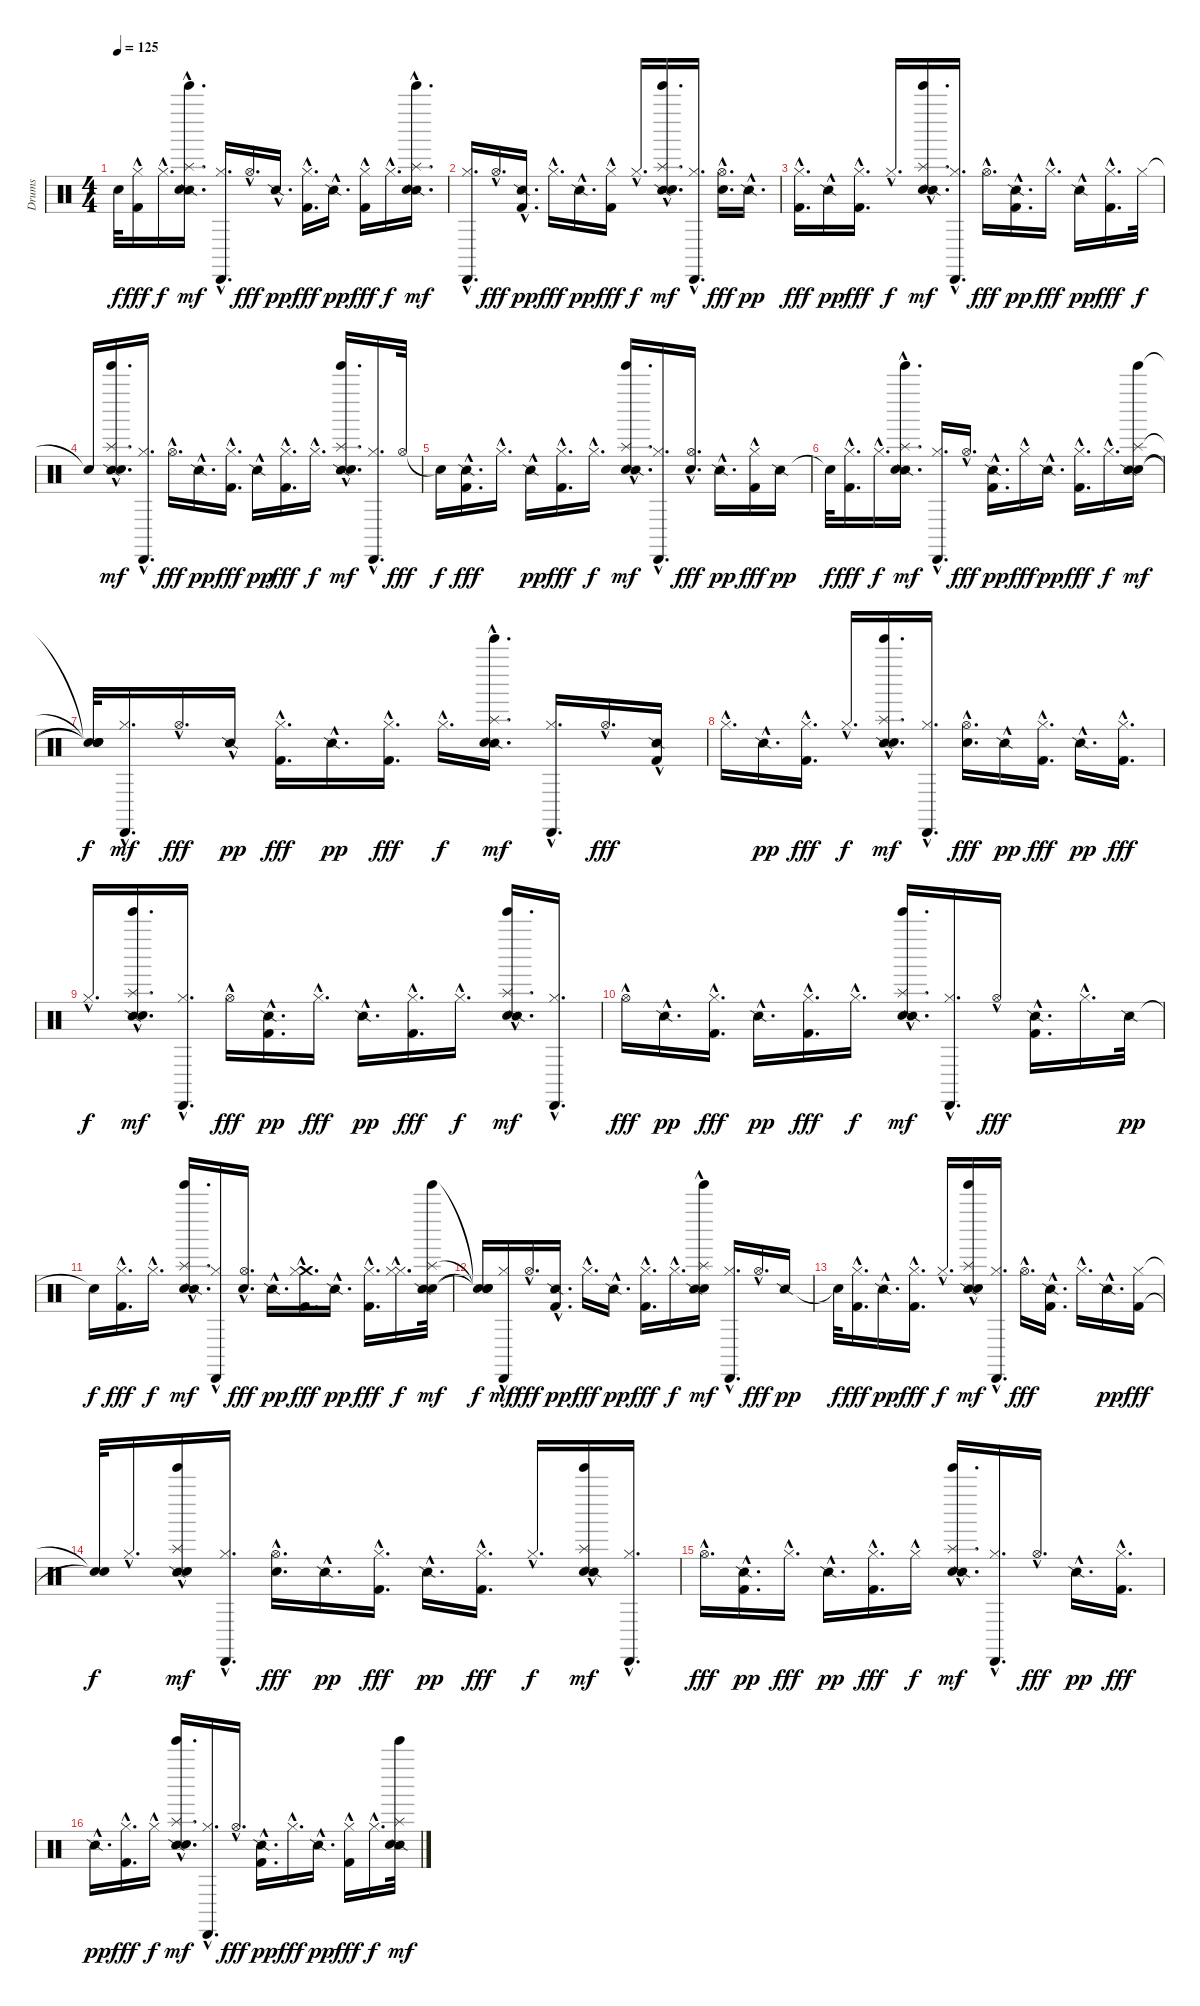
\track ("Drums" "Drums") {instrument percussion}
\staff {score}
\articulation defaults
\ts (4 4)
\tempo 125
\clef neutral
\ks c "Snare (hit)"{t}.32{dy f}
("Hi-Hat (closed)"{hac} "Kick (hit) 2"{hac}).16{dy fff} "Hi-Hat (closed)"{hac}.16{d dy f} ("Snare (side stick) 2"{hac} "Hand Clap (hit)"{hac} "Tinkle Bell (hit)"{hac} "Splash (hit)"{hac}).16{d dy mf} ("Hi-Hat (closed)"{hac} "Cabasa (hit)"{hac}).16{d} "Hi-Hat (open)"{hac}.16{d dy fff} "Snare (side stick) 2"{hac}.16{d dy pp} ("Kick (hit) 2"{hac} "Hi-Hat (closed)"{hac}).16{d dy fff} "Snare (side stick) 2"{hac}.16{d dy pp} ("Hi-Hat (closed)"{hac} "Kick (hit) 2"{hac}).16{dy fff} "Hi-Hat (closed)"{hac}.16{d dy f} ("Snare (side stick) 2"{hac} "Hand Clap (hit)"{hac} "Tinkle Bell (hit)"{hac} "Splash (hit)"{hac}).16{d dy mf} |
("Hi-Hat (closed)"{hac} "Cabasa (hit)"{hac}).16{d} "Hi-Hat (open)"{hac}.16{d dy fff} ("Kick (hit) 2"{hac} "Snare (side stick) 2"{hac}).16{d dy pp} "Hi-Hat (closed)"{hac}.16{d dy fff} "Snare (side stick) 2"{hac}.16{d dy pp} ("Kick (hit) 2"{hac} "Hi-Hat (closed)"{hac}).16{dy fff} "Hi-Hat (closed)"{hac}.16{d dy f} ("Snare (side stick) 2"{hac} "Hand Clap (hit)"{hac} "Tinkle Bell (hit)"{hac} "Splash (hit)"{hac}).16{d dy mf} ("Hi-Hat (closed)"{hac} "Cabasa (hit)"{hac}).16{d} ("Hand Clap (hit)"{hac} "Hi-Hat (open)"{hac}).16{d dy fff} "Snare (side stick) 2"{hac}.16{d dy pp} |
("Hi-Hat (closed)"{hac} "Kick (hit) 2"{hac}).16{d dy fff} "Snare (side stick) 2"{hac}.16{dy pp} ("Kick (hit) 2"{hac} "Hi-Hat (closed)"{hac}).16{d dy fff} "Hi-Hat (closed)"{hac}.16{d dy f} ("Hand Clap (hit)"{hac} "Snare (side stick) 2"{hac} "Tinkle Bell (hit)"{hac} "Splash (hit)"{hac}).16{d dy mf} ("Cabasa (hit)"{hac} "Hi-Hat (closed)"{hac}).16{d} "Hi-Hat (open)"{hac}.16{d dy fff} ("Kick (hit) 2"{hac} "Snare (side stick) 2"{hac}).16{d dy pp} "Hi-Hat (closed)"{hac}.16{d dy fff} "Snare (side stick) 2"{hac}.16{dy pp} ("Kick (hit) 2"{hac} "Hi-Hat (closed)"{hac}).16{d dy fff} "Hi-Hat (closed)".32{dy f} |
"Snare (hit)"{t}.16 ("Snare (side stick) 2"{hac} "Hand Clap (hit)"{hac} "Tinkle Bell (hit)"{hac} "Splash (hit)"{hac}).16{d dy mf} ("Cabasa (hit)"{hac} "Hi-Hat (closed)"{hac}).16{d} "Hi-Hat (open)"{hac}.16{d dy fff} "Snare (side stick) 2"{hac}.16{d dy pp} ("Kick (hit) 2"{hac} "Hi-Hat (closed)"{hac}).16{d dy fff} "Snare (side stick) 2"{hac}.16{dy pp} ("Hi-Hat (closed)"{hac} "Kick (hit) 2"{hac}).16{d dy fff} "Hi-Hat (closed)"{hac}.16{d dy f} ("Snare (side stick) 2"{hac} "Hand Clap (hit)"{hac} "Tinkle Bell (hit)"{hac} "Splash (hit)"{hac}).16{d dy mf} ("Cabasa (hit)"{hac} "Hi-Hat (closed)"{hac}).16{d} "Hi-Hat (open)".32{dy fff} |
"Snare (hit)"{t}.16{dy f} ("Snare (side stick) 2"{hac} "Kick (hit) 2"{hac}).16{d dy fff} "Hi-Hat (closed)"{hac}.16{d} "Snare (side stick) 2"{hac}.16{dy pp} ("Kick (hit) 2"{hac} "Hi-Hat (closed)"{hac}).16{d dy fff} "Hi-Hat (closed)"{hac}.16{d dy f} ("Hand Clap (hit)"{hac} "Snare (side stick) 2"{hac} "Tinkle Bell (hit)"{hac} "Splash (hit)"{hac}).16{d dy mf} ("Hi-Hat (closed)"{hac} "Cabasa (hit)"{hac}).16{d} ("Hand Clap (hit)"{hac} "Hi-Hat (open)"{hac}).16{d dy fff} "Snare (side stick) 2"{hac}.16{d dy pp} ("Hi-Hat (closed)"{hac} "Kick (hit) 2"{hac}).16{dy fff} "Snare (side stick) 2".16{dy pp} |
"Snare (hit)"{t}.32{dy f} ("Hi-Hat (closed)"{hac} "Kick (hit) 2"{hac}).16{d dy fff} "Hi-Hat (closed)"{hac}.16{d dy f} ("Snare (side stick) 2"{hac} "Hand Clap (hit)"{hac} "Tinkle Bell (hit)"{hac} "Splash (hit)"{hac}).16{d dy mf} ("Cabasa (hit)"{hac} "Hi-Hat (closed)"{hac}).16{d} "Hi-Hat (open)"{hac}.16{d dy fff} ("Kick (hit) 2"{hac} "Snare (side stick) 2"{hac}).16{d dy pp} "Hi-Hat (closed)"{hac}.16{dy fff} "Snare (side stick) 2"{hac}.16{d dy pp} ("Hi-Hat (closed)"{hac} "Kick (hit) 2"{hac}).16{d dy fff} "Hi-Hat (closed)"{hac}.16{d dy f} ("Hand Clap (hit)" "Snare (side stick) 2" "Tinkle Bell (hit)" "Splash (hit)").16{dy mf} |
("Snare (hit)"{t} "Snare (hit)"{t} "Snare (hit)"{t} "Snare (hit)"{t}).32{dy f} ("Cabasa (hit)"{hac} "Hi-Hat (closed)"{hac}).16{d dy mf} "Hi-Hat (open)"{hac}.16{d dy fff} "Snare (side stick) 2"{hac}.16{dy pp} ("Hi-Hat (closed)"{hac} "Kick (hit) 2"{hac}).16{d dy fff} "Snare (side stick) 2"{hac}.16{d dy pp} ("Hi-Hat (closed)"{hac} "Kick (hit) 2"{hac}).16{d dy fff} "Hi-Hat (closed)"{hac}.16{d dy f} ("Snare (side stick) 2"{hac} "Hand Clap (hit)"{hac} "Tinkle Bell (hit)"{hac} "Splash (hit)"{hac}).16{d dy mf} ("Hi-Hat (closed)"{hac} "Cabasa (hit)"{hac}).16{d} "Hi-Hat (open)"{hac}.16{d dy fff} ("Snare (side stick) 2"{hac} "Kick (hit) 2"{hac}).16 |
"Hi-Hat (closed)"{hac}.16{d} "Snare (side stick) 2"{hac}.16{d dy pp} ("Kick (hit) 2"{hac} "Hi-Hat (closed)"{hac}).16{d dy fff} "Hi-Hat (closed)"{hac}.16{d dy f} ("Snare (side stick) 2"{hac} "Hand Clap (hit)"{hac} "Tinkle Bell (hit)"{hac} "Splash (hit)"{hac}).16{d dy mf} ("Cabasa (hit)"{hac} "Hi-Hat (closed)"{hac}).16{d} ("Hand Clap (hit)"{hac} "Hi-Hat (open)"{hac}).16{d dy fff} "Snare (side stick) 2"{hac}.16{dy pp} ("Kick (hit) 2"{hac} "Hi-Hat (closed)"{hac}).16{d dy fff} "Snare (side stick) 2"{hac}.16{d dy pp} ("Hi-Hat (closed)"{hac} "Kick (hit) 2"{hac}).16{d dy fff} |
"Hi-Hat (closed)"{hac}.16{d dy f} ("Snare (side stick) 2"{hac} "Hand Clap (hit)"{hac} "Tinkle Bell (hit)"{hac} "Splash (hit)"{hac}).16{d dy mf} ("Cabasa (hit)"{hac} "Hi-Hat (closed)"{hac}).16{d} "Hi-Hat (open)"{hac}.16{dy fff} ("Kick (hit) 2"{hac} "Snare (side stick) 2"{hac}).16{d dy pp} "Hi-Hat (closed)"{hac}.16{d dy fff} "Snare (side stick) 2"{hac}.16{d dy pp} ("Hi-Hat (closed)"{hac} "Kick (hit) 2"{hac}).16{d dy fff} "Hi-Hat (closed)"{hac}.16{d dy f} ("Hand Clap (hit)"{hac} "Snare (side stick) 2"{hac} "Tinkle Bell (hit)"{hac} "Splash (hit)"{hac}).16{d dy mf} ("Hi-Hat (closed)"{hac} "Cabasa (hit)"{hac}).16{d} |
"Hi-Hat (open)"{hac}.16{dy fff} "Snare (side stick) 2"{hac}.16{d dy pp} ("Hi-Hat (closed)"{hac} "Kick (hit) 2"{hac}).16{d dy fff} "Snare (side stick) 2"{hac}.16{d dy pp} ("Hi-Hat (closed)"{hac} "Kick (hit) 2"{hac}).16{d dy fff} "Hi-Hat (closed)"{hac}.16{d dy f} ("Hand Clap (hit)"{hac} "Snare (side stick) 2"{hac} "Tinkle Bell (hit)"{hac} "Splash (hit)"{hac}).16{d dy mf} ("Hi-Hat (closed)"{hac} "Cabasa (hit)"{hac}).16{d} "Hi-Hat (open)"{hac}.16{dy fff} ("Snare (side stick) 2"{hac} "Kick (hit) 2"{hac}).16{d} "Hi-Hat (closed)"{hac}.16{d} "Snare (side stick) 2".32{dy pp} |
"Snare (hit)"{t}.16{dy f} ("Hi-Hat (closed)"{hac} "Kick (hit) 2"{hac}).16{d dy fff} "Hi-Hat (closed)"{hac}.16{d dy f} ("Hand Clap (hit)"{hac} "Snare (side stick) 2"{hac} "Tinkle Bell (hit)"{hac} "Splash (hit)"{hac}).16{d dy mf} ("Cabasa (hit)"{hac} "Hi-Hat (closed)"{hac}).16 ("Hand Clap (hit)"{hac} "Hi-Hat (open)"{hac}).16{d dy fff} "Snare (side stick) 2"{hac}.16{d dy pp} ("Crash medium (hit)" "Hi-Hat (closed)"{hac} "Kick (hit) 2"{hac}).16{d dy fff} "Snare (side stick) 2"{hac}.16{d dy pp} ("Hi-Hat (closed)"{hac} "Kick (hit) 2"{hac}).16{d dy fff} ("Hi-Hat (closed)"{hac} "Hi-Hat (closed)"{hac}).16{d dy f} ("Hand Clap (hit)" "Snare (side stick) 2" "Tinkle Bell (hit)" "Splash (hit)").32{dy mf} |
("Snare (hit)"{t} "Snare (hit)"{t} "Snare (hit)"{t} "Snare (hit)"{t}).16{dy f} ("Cabasa (hit)"{hac} "Hi-Hat (closed)"{hac}).16{dy mf} "Hi-Hat (open)"{hac}.16{d dy fff} ("Kick (hit) 2"{hac} "Snare (side stick) 2"{hac}).16{d dy pp} "Hi-Hat (closed)"{hac}.16{d dy fff} "Snare (side stick) 2"{hac}.16{d dy pp} ("Hi-Hat (closed)"{hac} "Kick (hit) 2"{hac}).16{d dy fff} "Hi-Hat (closed)"{hac}.16{d dy f} ("Hand Clap (hit)"{hac} "Snare (side stick) 2"{hac} "Tinkle Bell (hit)"{hac} "Splash (hit)"{hac}).16{dy mf} ("Cabasa (hit)"{hac} "Hi-Hat (closed)"{hac}).16{d} "Hi-Hat (open)"{hac}.16{d dy fff} "Snare (side stick) 2".16{dy pp} |
"Snare (hit)"{t}.32{dy f} ("Hi-Hat (closed)"{hac} "Kick (hit) 2"{hac}).16{d dy fff} "Snare (side stick) 2"{hac}.16{d dy pp} ("Kick (hit) 2"{hac} "Hi-Hat (closed)"{hac}).16{d dy fff} "Hi-Hat (closed)"{hac}.16{d dy f} ("Snare (side stick) 2"{hac} "Hand Clap (hit)"{hac} "Tinkle Bell (hit)"{hac} "Splash (hit)"{hac}).16{dy mf} ("Cabasa (hit)"{hac} "Hi-Hat (closed)"{hac}).16{d} "Hi-Hat (open)"{hac}.16{d dy fff} ("Snare (side stick) 2"{hac} "Kick (hit) 2"{hac}).16{d} "Hi-Hat (closed)"{hac}.16{d} "Snare (side stick) 2"{hac}.16{d dy pp} ("Hi-Hat (closed)" "Kick (hit) 2").16{dy fff} |
("Snare (hit)"{t} "Snare (hit)"{t}).32{dy f} "Hi-Hat (closed)"{hac}.16{d} ("Snare (side stick) 2"{hac} "Hand Clap (hit)"{hac} "Tinkle Bell (hit)"{hac} "Splash (hit)"{hac}).16{dy mf} ("Cabasa (hit)"{hac} "Hi-Hat (closed)"{hac}).16{d} ("Hi-Hat (open)"{hac} "Hand Clap (hit)"{hac}).16{d dy fff} "Snare (side stick) 2"{hac}.16{d dy pp} ("Hi-Hat (closed)"{hac} "Kick (hit) 2"{hac}).16{d dy fff} "Snare (side stick) 2"{hac}.16{d dy pp} ("Hi-Hat (closed)"{hac} "Kick (hit) 2"{hac}).16{d dy fff} "Hi-Hat (closed)"{hac}.16{d dy f} ("Hand Clap (hit)"{hac} "Snare (side stick) 2"{hac} "Tinkle Bell (hit)"{hac} "Splash (hit)"{hac}).16{dy mf} ("Hi-Hat (closed)"{hac} "Cabasa (hit)"{hac}).16{d} |
"Hi-Hat (open)"{hac}.16{d dy fff} ("Kick (hit) 2"{hac} "Snare (side stick) 2"{hac}).16{d dy pp} "Hi-Hat (closed)"{hac}.16{d dy fff} "Snare (side stick) 2"{hac}.16{d dy pp} ("Hi-Hat (closed)"{hac} "Kick (hit) 2"{hac}).16{d dy fff} "Hi-Hat (closed)"{hac}.16{dy f} ("Hand Clap (hit)"{hac} "Snare (side stick) 2"{hac} "Tinkle Bell (hit)"{hac} "Splash (hit)"{hac}).16{d dy mf} ("Hi-Hat (closed)"{hac} "Cabasa (hit)"{hac}).16{d} "Hi-Hat (open)"{hac}.16{d dy fff} "Snare (side stick) 2"{hac}.16{d dy pp} ("Kick (hit) 2"{hac} "Hi-Hat (closed)"{hac}).16{d dy fff} |
"Snare (side stick) 2"{hac}.16{d dy pp} ("Hi-Hat (closed)"{hac} "Kick (hit) 2"{hac}).16{d dy fff} "Hi-Hat (closed)"{hac}.16{dy f} ("Snare (side stick) 2"{hac} "Hand Clap (hit)"{hac} "Tinkle Bell (hit)"{hac} "Splash (hit)"{hac}).16{d dy mf} ("Cabasa (hit)"{hac} "Hi-Hat (closed)"{hac}).16{d} "Hi-Hat (open)"{hac}.16{d dy fff} ("Kick (hit) 2"{hac} "Snare (side stick) 2"{hac}).16{d dy pp} "Hi-Hat (closed)"{hac}.16{d dy fff} "Snare (side stick) 2"{hac}.16{d dy pp} ("Kick (hit) 2"{hac} "Hi-Hat (closed)"{hac}).16{dy fff} "Hi-Hat (closed)"{hac}.16{d dy f} ("Snare (side stick) 2" "Hand Clap (hit)" "Tinkle Bell (hit)" "Splash (hit)").32{dy mf}
